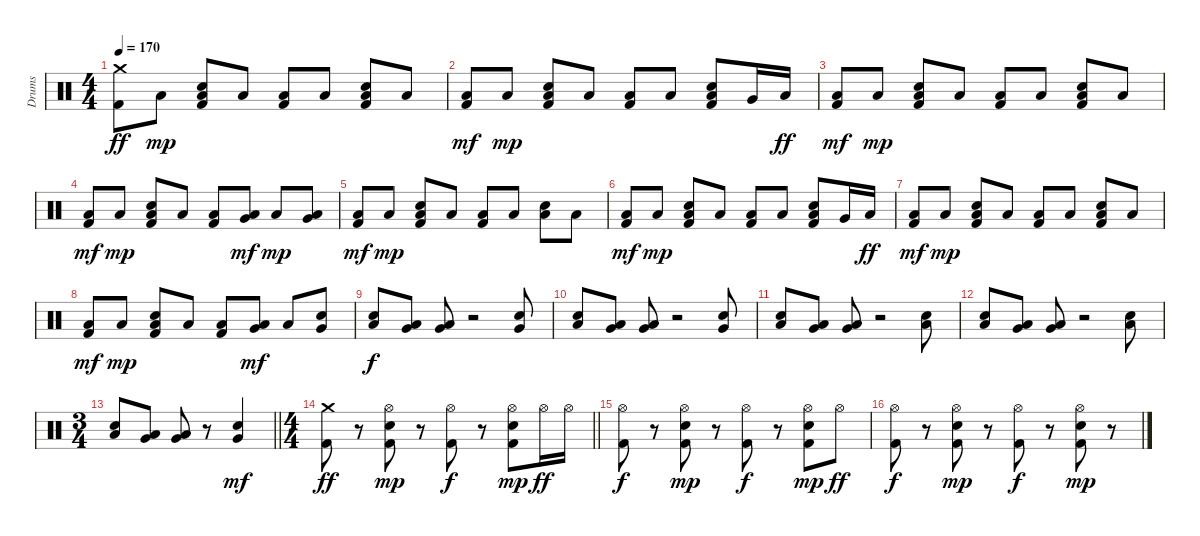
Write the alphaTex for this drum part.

\track ("Drums" "Drums") {instrument percussion}
\staff {score}
\articulation defaults
\ts (4 4)
\tempo 170
\clef neutral
\ks c
("Crash medium (hit)" "Kick (hit) 2").8{dy ff} "Low Floor Tom (hit)".8{dy mp} ("Low Floor Tom (hit)" "Electric Snare (hit)" "Kick (hit) 2").8 "Low Floor Tom (hit)".8 ("Low Floor Tom (hit)" "Kick (hit) 2").8 "Low Floor Tom (hit)".8 ("Low Floor Tom (hit)" "Electric Snare (hit)" "Kick (hit) 2").8 "Low Floor Tom (hit)".8 |
("Low Floor Tom (hit)" "Kick (hit) 2").8{dy mf} "Low Floor Tom (hit)".8{dy mp} ("Low Floor Tom (hit)" "Electric Snare (hit)" "Kick (hit) 2").8 "Low Floor Tom (hit)".8 ("Low Floor Tom (hit)" "Kick (hit) 2").8 "Low Floor Tom (hit)".8 ("Low Floor Tom (hit)" "Electric Snare (hit)" "Kick (hit) 2").8 "Very Low Tom (hit)".16 "Low Floor Tom (hit)".16{dy ff} |
("Low Floor Tom (hit)" "Kick (hit) 2").8{dy mf} "Low Floor Tom (hit)".8{dy mp} ("Low Floor Tom (hit)" "Electric Snare (hit)" "Kick (hit) 2").8 "Low Floor Tom (hit)".8 ("Low Floor Tom (hit)" "Kick (hit) 2").8 "Low Floor Tom (hit)".8 ("Low Floor Tom (hit)" "Electric Snare (hit)" "Kick (hit) 2").8 "Low Floor Tom (hit)".8 |
("Low Floor Tom (hit)" "Kick (hit) 2").8{dy mf} "Low Floor Tom (hit)".8{dy mp} ("Low Floor Tom (hit)" "Electric Snare (hit)" "Kick (hit) 2").8 "Low Floor Tom (hit)".8 ("Low Floor Tom (hit)" "Kick (hit) 2").8 ("Very Low Tom (hit)" "Low Floor Tom (hit)").8{dy mf} "Low Floor Tom (hit)".8{dy mp} ("Very Low Tom (hit)" "Low Floor Tom (hit)").8 |
("Low Floor Tom (hit)" "Kick (hit) 2").8{dy mf} "Low Floor Tom (hit)".8{dy mp} ("Low Floor Tom (hit)" "Electric Snare (hit)" "Kick (hit) 2").8 "Low Floor Tom (hit)".8 ("Low Floor Tom (hit)" "Kick (hit) 2").8 "Low Floor Tom (hit)".8 ("Low Floor Tom (hit)" "Electric Snare (hit)").8 "Low Floor Tom (hit)".8 |
("Low Floor Tom (hit)" "Kick (hit) 2").8{dy mf} "Low Floor Tom (hit)".8{dy mp} ("Low Floor Tom (hit)" "Electric Snare (hit)" "Kick (hit) 2").8 "Low Floor Tom (hit)".8 ("Low Floor Tom (hit)" "Kick (hit) 2").8 "Low Floor Tom (hit)".8 ("Low Floor Tom (hit)" "Electric Snare (hit)" "Kick (hit) 2").8 "Very Low Tom (hit)".16 "Low Floor Tom (hit)".16{dy ff} |
("Low Floor Tom (hit)" "Kick (hit) 2").8{dy mf} "Low Floor Tom (hit)".8{dy mp} ("Low Floor Tom (hit)" "Electric Snare (hit)" "Kick (hit) 2").8 "Low Floor Tom (hit)".8 ("Low Floor Tom (hit)" "Kick (hit) 2").8 "Low Floor Tom (hit)".8 ("Low Floor Tom (hit)" "Electric Snare (hit)" "Kick (hit) 2").8 "Low Floor Tom (hit)".8 |
("Low Floor Tom (hit)" "Kick (hit) 2").8{dy mf} "Low Floor Tom (hit)".8{dy mp} ("Low Floor Tom (hit)" "Electric Snare (hit)" "Kick (hit) 2").8 "Low Floor Tom (hit)".8 ("Low Floor Tom (hit)" "Kick (hit) 2").8 ("Very Low Tom (hit)" "Low Floor Tom (hit)").8{dy mf} "Low Floor Tom (hit)".8 ("Very Low Tom (hit)" "Electric Snare (hit)").8 |
("Low Floor Tom (hit)" "Electric Snare (hit)").8{dy f} ("Very Low Tom (hit)" "Low Floor Tom (hit)").8 ("Very Low Tom (hit)" "Low Floor Tom (hit)").8 r.2 ("Very Low Tom (hit)" "Electric Snare (hit)").8 |
("Low Floor Tom (hit)" "Electric Snare (hit)").8 ("Very Low Tom (hit)" "Low Floor Tom (hit)").8 ("Low Floor Tom (hit)" "Very Low Tom (hit)").8 r.2 ("Very Low Tom (hit)" "Electric Snare (hit)").8 |
("Low Floor Tom (hit)" "Electric Snare (hit)").8 ("Low Floor Tom (hit)" "Very Low Tom (hit)").8 ("Very Low Tom (hit)" "Low Floor Tom (hit)").8 r.2 ("Low Floor Tom (hit)" "Electric Snare (hit)").8 |
("Low Floor Tom (hit)" "Electric Snare (hit)").8 ("Very Low Tom (hit)" "Low Floor Tom (hit)").8 ("Very Low Tom (hit)" "Low Floor Tom (hit)").8 r.2 ("Low Floor Tom (hit)" "Electric Snare (hit)").8 |
\ts (3 4)
\barLineRight lightlight
("Low Floor Tom (hit)" "Electric Snare (hit)").8 ("Very Low Tom (hit)" "Low Floor Tom (hit)").8 ("Very Low Tom (hit)" "Low Floor Tom (hit)").8 r.8 ("Very Low Tom (hit)" "Electric Snare (hit)").4{dy mf} |
\ts (4 4)
\barLineRight lightlight
("Crash medium (hit)" "Kick (hit) 2").8{dy ff} r.8 ("Hi-Hat (open)" "Electric Snare (hit)" "Kick (hit) 2").8{dy mp} r.8 ("Hi-Hat (open)" "Kick (hit) 2").8{dy f} r.8 ("Hi-Hat (open)" "Electric Snare (hit)" "Kick (hit) 2").8{dy mp} "Hi-Hat (open)".16{dy ff} "Hi-Hat (open)".16 |
("Hi-Hat (open)" "Kick (hit) 2").8{dy f} r.8 ("Hi-Hat (open)" "Electric Snare (hit)" "Kick (hit) 2").8{dy mp} r.8 ("Hi-Hat (open)" "Kick (hit) 2").8{dy f} r.8 ("Hi-Hat (open)" "Electric Snare (hit)" "Kick (hit) 2").8{dy mp} "Hi-Hat (open)".8{dy ff} |
("Hi-Hat (open)" "Kick (hit) 2").8{dy f} r.8 ("Hi-Hat (open)" "Electric Snare (hit)" "Kick (hit) 2").8{dy mp} r.8 ("Hi-Hat (open)" "Kick (hit) 2").8{dy f} r.8 ("Hi-Hat (open)" "Electric Snare (hit)" "Kick (hit) 2").8{dy mp} r.8
